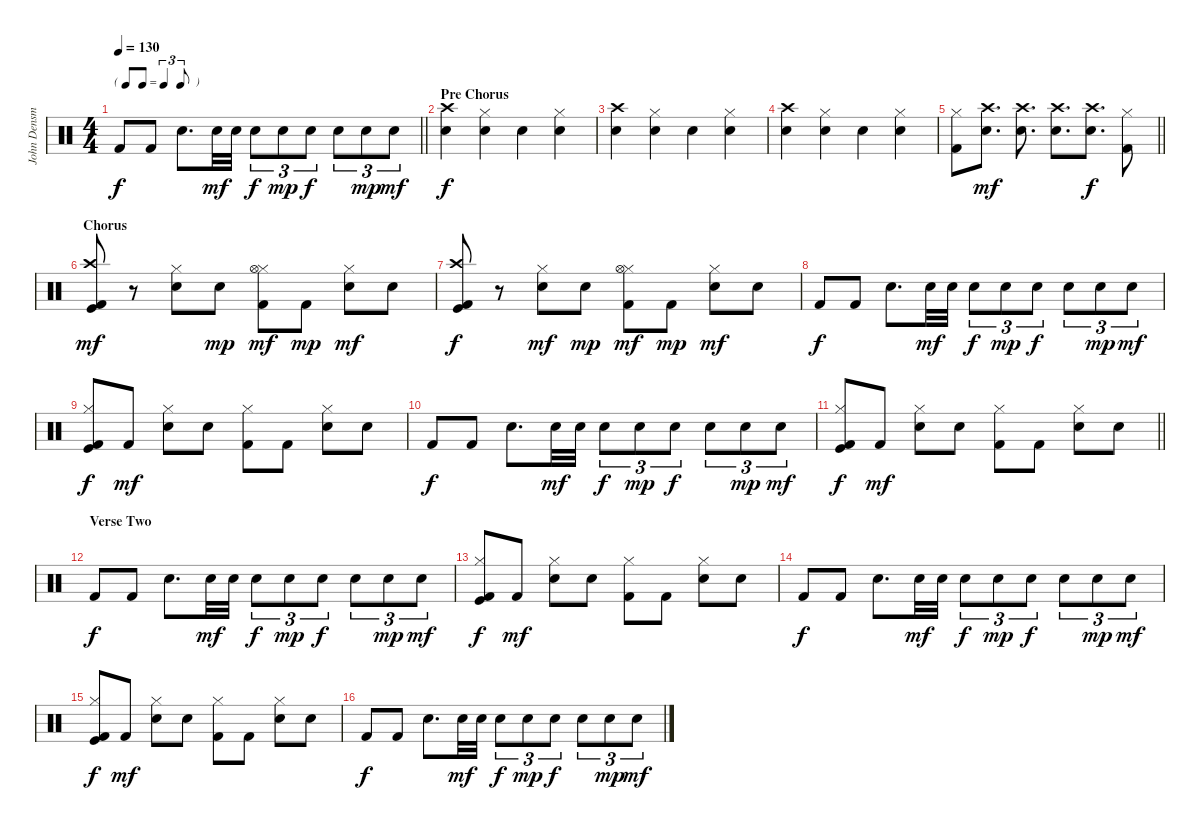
\track ("John Densmore" "John Densm") {instrument percussion}
\staff {score}
\articulation defaults
\ts (4 4)
\tf triplet8th
\tempo 130
\clef neutral
\barLineRight lightlight
\ks c "Kick (hit) 2".8{dy f} "Kick (hit) 2".8 "Electric Snare (hit)".8{d} "Snare (hit) 2".32{dy mf} "Electric Snare (hit)".32 "Electric Snare (hit)".8{tu (3 2) dy f} "Electric Snare (hit)".8{tu (3 2) dy mp} "Electric Snare (hit)".8{tu (3 2) dy f} "Snare (hit) 2".8{tu (3 2)} "Snare (hit) 2".8{tu (3 2) dy mp} "Snare (hit) 2".8{tu (3 2) dy mf}
|
\section ("" "Pre Chorus")
("Electric Snare (hit)" "Crash high (hit)").4{dy f} ("Snare (hit) 2" "Hi-Hat (closed)").4 "Electric Snare (hit)".4 ("Snare (hit) 2" "Hi-Hat (closed)").4 |
("Electric Snare (hit)" "Crash high (hit)").4 ("Snare (hit) 2" "Hi-Hat (closed)").4 "Electric Snare (hit)".4 ("Snare (hit) 2" "Hi-Hat (closed)").4 |
("Electric Snare (hit)" "Crash high (hit)").4 ("Electric Snare (hit)" "Hi-Hat (closed)").4 "Electric Snare (hit)".4 ("Snare (hit) 2" "Hi-Hat (closed)").4 |
\barLineRight lightlight
("Kick (hit) 2" "Hi-Hat (closed)").8 ("Electric Snare (hit)" "Crash high (hit)").8{d dy mf} ("Electric Snare (hit)" "Crash high (hit)").8{d} ("Electric Snare (hit)" "Crash high (hit)").8{d} ("Electric Snare (hit)" "Crash high (hit)").8{d dy f} ("Kick (hit) 2" "Hi-Hat (closed)").8 |
\section ("" "Chorus")
("Kick (hit) 2" "Kick (hit)" "Crash high (hit)").8{dy mf} r.8 ("Electric Snare (hit)" "Hi-Hat (closed)").8 "Electric Snare (hit)".8{dy mp} ("Kick (hit) 2" "Hi-Hat (closed)" "Hi-Hat (open)").8{dy mf} "Kick (hit) 2".8{dy mp} ("Electric Snare (hit)" "Hi-Hat (closed)").8{dy mf} "Electric Snare (hit)".8 |
("Kick (hit) 2" "Kick (hit)" "Crash high (hit)").8{dy f} r.8 ("Electric Snare (hit)" "Hi-Hat (closed)").8{dy mf} "Electric Snare (hit)".8{dy mp} ("Kick (hit) 2" "Hi-Hat (closed)" "Hi-Hat (open)").8{dy mf} "Kick (hit) 2".8{dy mp} ("Electric Snare (hit)" "Hi-Hat (closed)").8{dy mf} "Electric Snare (hit)".8 |
"Kick (hit) 2".8{dy f} "Kick (hit) 2".8 "Electric Snare (hit)".8{d} "Snare (hit) 2".32{dy mf} "Electric Snare (hit)".32 "Electric Snare (hit)".8{tu (3 2) dy f} "Electric Snare (hit)".8{tu (3 2) dy mp} "Electric Snare (hit)".8{tu (3 2) dy f} "Snare (hit) 2".8{tu (3 2)} "Snare (hit) 2".8{tu (3 2) dy mp} "Snare (hit) 2".8{tu (3 2) dy mf} |
("Kick (hit) 2" "Hi-Hat (closed)" "Kick (hit)").8{dy f} "Kick (hit) 2".8{dy mf} ("Electric Snare (hit)" "Hi-Hat (closed)").8 "Electric Snare (hit)".8 ("Kick (hit) 2" "Hi-Hat (closed)").8 "Kick (hit) 2".8 ("Electric Snare (hit)" "Hi-Hat (closed)").8 "Electric Snare (hit)".8 |
"Kick (hit) 2".8{dy f} "Kick (hit) 2".8 "Electric Snare (hit)".8{d} "Snare (hit) 2".32{dy mf} "Electric Snare (hit)".32 "Electric Snare (hit)".8{tu (3 2) dy f} "Electric Snare (hit)".8{tu (3 2) dy mp} "Electric Snare (hit)".8{tu (3 2) dy f} "Snare (hit) 2".8{tu (3 2)} "Snare (hit) 2".8{tu (3 2) dy mp} "Snare (hit) 2".8{tu (3 2) dy mf} |
\barLineRight lightlight
("Kick (hit) 2" "Hi-Hat (closed)" "Kick (hit)").8{dy f} "Kick (hit) 2".8{dy mf} ("Electric Snare (hit)" "Hi-Hat (closed)").8 "Electric Snare (hit)".8 ("Kick (hit) 2" "Hi-Hat (closed)").8 "Kick (hit) 2".8 ("Electric Snare (hit)" "Hi-Hat (closed)").8 "Electric Snare (hit)".8 |
\section ("" "Verse Two")
"Kick (hit) 2".8{dy f} "Kick (hit) 2".8 "Electric Snare (hit)".8{d} "Snare (hit) 2".32{dy mf} "Electric Snare (hit)".32 "Electric Snare (hit)".8{tu (3 2) dy f} "Electric Snare (hit)".8{tu (3 2) dy mp} "Electric Snare (hit)".8{tu (3 2) dy f} "Snare (hit) 2".8{tu (3 2)} "Snare (hit) 2".8{tu (3 2) dy mp} "Snare (hit) 2".8{tu (3 2) dy mf} |
("Kick (hit) 2" "Hi-Hat (closed)" "Kick (hit)").8{dy f} "Kick (hit) 2".8{dy mf} ("Electric Snare (hit)" "Hi-Hat (closed)").8 "Electric Snare (hit)".8 ("Kick (hit) 2" "Hi-Hat (closed)").8 "Kick (hit) 2".8 ("Electric Snare (hit)" "Hi-Hat (closed)").8 "Electric Snare (hit)".8 |
"Kick (hit) 2".8{dy f} "Kick (hit) 2".8 "Electric Snare (hit)".8{d} "Snare (hit) 2".32{dy mf} "Electric Snare (hit)".32 "Electric Snare (hit)".8{tu (3 2) dy f} "Electric Snare (hit)".8{tu (3 2) dy mp} "Electric Snare (hit)".8{tu (3 2) dy f} "Snare (hit) 2".8{tu (3 2)} "Snare (hit) 2".8{tu (3 2) dy mp} "Snare (hit) 2".8{tu (3 2) dy mf} |
("Kick (hit) 2" "Hi-Hat (closed)" "Kick (hit)").8{dy f} "Kick (hit) 2".8{dy mf} ("Electric Snare (hit)" "Hi-Hat (closed)").8 "Electric Snare (hit)".8 ("Kick (hit) 2" "Hi-Hat (closed)").8 "Kick (hit) 2".8 ("Electric Snare (hit)" "Hi-Hat (closed)").8 "Electric Snare (hit)".8 |
"Kick (hit) 2".8{dy f} "Kick (hit) 2".8 "Electric Snare (hit)".8{d} "Snare (hit) 2".32{dy mf} "Electric Snare (hit)".32 "Electric Snare (hit)".8{tu (3 2) dy f} "Electric Snare (hit)".8{tu (3 2) dy mp} "Electric Snare (hit)".8{tu (3 2) dy f} "Snare (hit) 2".8{tu (3 2)} "Snare (hit) 2".8{tu (3 2) dy mp} "Snare (hit) 2".8{tu (3 2) dy mf}
